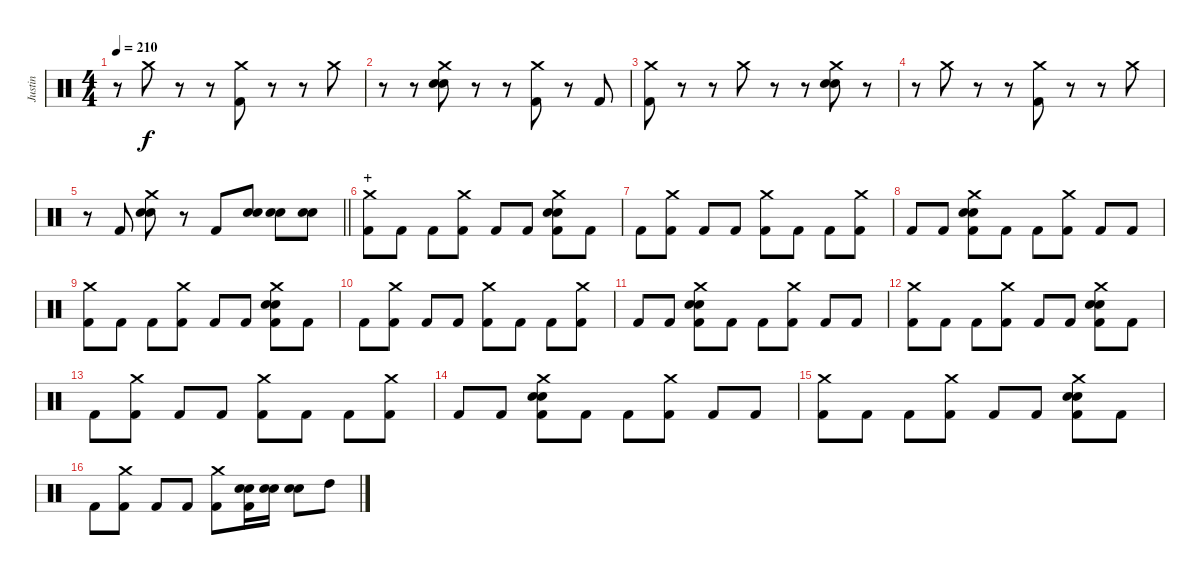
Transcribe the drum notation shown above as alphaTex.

\track ("Justin" "Justin") {instrument percussion}
\staff {score}
\articulation defaults
\ts (4 4)
\tempo 210
\clef neutral
\ks c
r.8{dy f} "Crash medium (hit)".8 r.8 r.8 ("Crash medium (hit)" "Kick (hit) 2").8 r.8 r.8 "Crash medium (hit)".8 |
r.8 r.8 ("Crash medium (hit)" "Electric Snare (hit)" "Snare (hit) 2").8 r.8 r.8 ("Crash medium (hit)" "Kick (hit) 2").8 r.8 "Kick (hit) 2".8 |
("Crash medium (hit)" "Kick (hit) 2").8 r.8 r.8 "Crash medium (hit)".8 r.8 r.8 ("Crash medium (hit)" "Electric Snare (hit)" "Snare (hit) 2").8 r.8 |
r.8 "Crash medium (hit)".8 r.8 r.8 ("Crash medium (hit)" "Kick (hit) 2").8 r.8 r.8 "Crash medium (hit)".8 |
\barLineRight lightlight
r.8 "Kick (hit) 2".8 ("Crash medium (hit)" "Electric Snare (hit)" "Snare (hit) 2").8 r.8 "Kick (hit) 2".8 ("Electric Snare (hit)" "Snare (hit) 2").8 ("Electric Snare (hit)" "Snare (hit) 2").8 ("Electric Snare (hit)" "Snare (hit) 2").8 |
\section ("" "+")
("Crash medium (hit)" "Kick (hit) 2").8 "Kick (hit) 2".8 "Kick (hit) 2".8 ("Crash medium (hit)" "Kick (hit) 2").8 "Kick (hit) 2".8 "Kick (hit) 2".8 ("Crash medium (hit)" "Electric Snare (hit)" "Snare (hit) 2" "Kick (hit) 2").8 "Kick (hit) 2".8 |
"Kick (hit) 2".8 ("Crash medium (hit)" "Kick (hit) 2").8 "Kick (hit) 2".8 "Kick (hit) 2".8 ("Crash medium (hit)" "Kick (hit) 2").8 "Kick (hit) 2".8 "Kick (hit) 2".8 ("Crash medium (hit)" "Kick (hit) 2").8 |
"Kick (hit) 2".8 "Kick (hit) 2".8 ("Crash medium (hit)" "Electric Snare (hit)" "Snare (hit) 2" "Kick (hit) 2").8 "Kick (hit) 2".8 "Kick (hit) 2".8 ("Crash medium (hit)" "Kick (hit) 2").8 "Kick (hit) 2".8 "Kick (hit) 2".8 |
("Crash medium (hit)" "Kick (hit) 2").8 "Kick (hit) 2".8 "Kick (hit) 2".8 ("Crash medium (hit)" "Kick (hit) 2").8 "Kick (hit) 2".8 "Kick (hit) 2".8 ("Crash medium (hit)" "Electric Snare (hit)" "Snare (hit) 2" "Kick (hit) 2").8 "Kick (hit) 2".8 |
"Kick (hit) 2".8 ("Crash medium (hit)" "Kick (hit) 2").8 "Kick (hit) 2".8 "Kick (hit) 2".8 ("Crash medium (hit)" "Kick (hit) 2").8 "Kick (hit) 2".8 "Kick (hit) 2".8 ("Crash medium (hit)" "Kick (hit) 2").8 |
"Kick (hit) 2".8 "Kick (hit) 2".8 ("Crash medium (hit)" "Electric Snare (hit)" "Snare (hit) 2" "Kick (hit) 2").8 "Kick (hit) 2".8 "Kick (hit) 2".8 ("Crash medium (hit)" "Kick (hit) 2").8 "Kick (hit) 2".8 "Kick (hit) 2".8 |
("Crash medium (hit)" "Kick (hit) 2").8 "Kick (hit) 2".8 "Kick (hit) 2".8 ("Crash medium (hit)" "Kick (hit) 2").8 "Kick (hit) 2".8 "Kick (hit) 2".8 ("Crash medium (hit)" "Electric Snare (hit)" "Snare (hit) 2" "Kick (hit) 2").8 "Kick (hit) 2".8 |
"Kick (hit) 2".8 ("Crash medium (hit)" "Kick (hit) 2").8 "Kick (hit) 2".8 "Kick (hit) 2".8 ("Crash medium (hit)" "Kick (hit) 2").8 "Kick (hit) 2".8 "Kick (hit) 2".8 ("Crash medium (hit)" "Kick (hit) 2").8 |
"Kick (hit) 2".8 "Kick (hit) 2".8 ("Crash medium (hit)" "Electric Snare (hit)" "Snare (hit) 2" "Kick (hit) 2").8 "Kick (hit) 2".8 "Kick (hit) 2".8 ("Crash medium (hit)" "Kick (hit) 2").8 "Kick (hit) 2".8 "Kick (hit) 2".8 |
("Crash medium (hit)" "Kick (hit) 2").8 "Kick (hit) 2".8 "Kick (hit) 2".8 ("Crash medium (hit)" "Kick (hit) 2").8 "Kick (hit) 2".8 "Kick (hit) 2".8 ("Crash medium (hit)" "Electric Snare (hit)" "Snare (hit) 2" "Kick (hit) 2").8 "Kick (hit) 2".8 |
"Kick (hit) 2".8 ("Crash medium (hit)" "Kick (hit) 2").8 "Kick (hit) 2".8 "Kick (hit) 2".8 ("Crash medium (hit)" "Kick (hit) 2").8 ("Electric Snare (hit)" "Snare (hit) 2" "Kick (hit) 2").16 ("Electric Snare (hit)" "Snare (hit) 2").16 ("Electric Snare (hit)" "Snare (hit) 2").8 "High Tom (hit)".8
